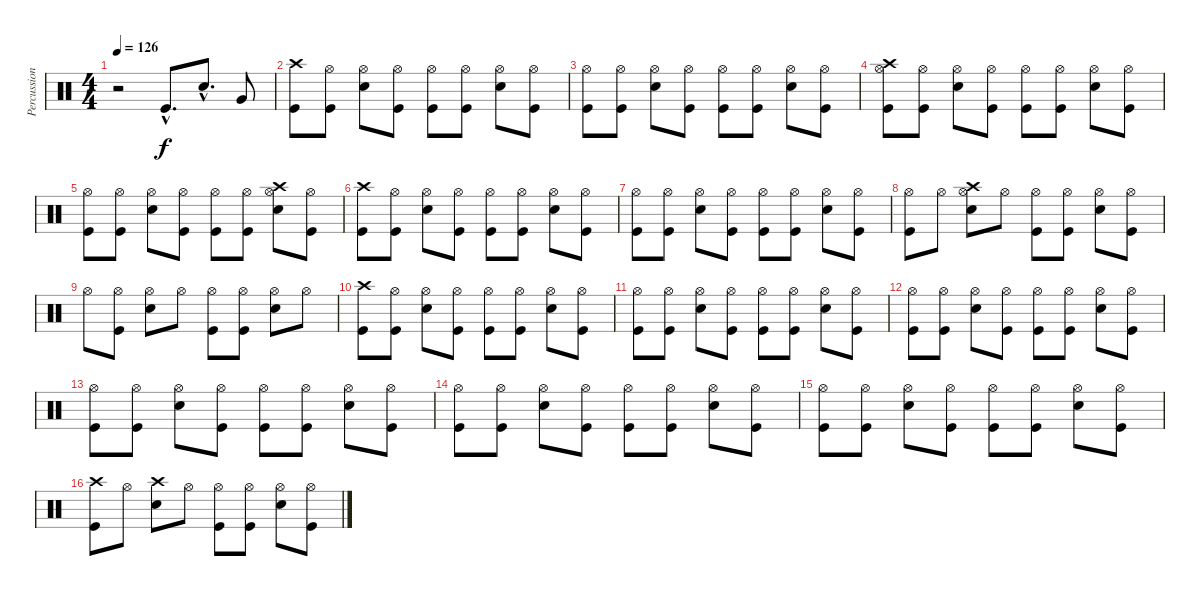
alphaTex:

\track ("Percussion" "Percussion") {instrument percussion}
\staff {score}
\articulation defaults
\ts (4 4)
\tempo 126
\clef neutral
\ks c
r.2{dy f} "Kick (hit)"{hac}.8{d} "Electric Snare (hit)"{hac}.8{d} "Very Low Tom (hit)".8 |
("Crash high (hit)" "Kick (hit)").8 ("Kick (hit)" "Hi-Hat (open)").8 ("Electric Snare (hit)" "Hi-Hat (open)").8 ("Kick (hit)" "Hi-Hat (open)").8 ("Kick (hit)" "Hi-Hat (open)").8 ("Kick (hit)" "Hi-Hat (open)").8 ("Electric Snare (hit)" "Hi-Hat (open)").8 ("Kick (hit)" "Hi-Hat (open)").8 |
("Kick (hit)" "Hi-Hat (open)").8 ("Kick (hit)" "Hi-Hat (open)").8 ("Electric Snare (hit)" "Hi-Hat (open)").8 ("Kick (hit)" "Hi-Hat (open)").8 ("Kick (hit)" "Hi-Hat (open)").8 ("Kick (hit)" "Hi-Hat (open)").8 ("Electric Snare (hit)" "Hi-Hat (open)").8 ("Kick (hit)" "Hi-Hat (open)").8 |
("Crash high (hit)" "Kick (hit)" "Hi-Hat (open)").8 ("Kick (hit)" "Hi-Hat (open)").8 ("Electric Snare (hit)" "Hi-Hat (open)").8 ("Kick (hit)" "Hi-Hat (open)").8 ("Kick (hit)" "Hi-Hat (open)").8 ("Kick (hit)" "Hi-Hat (open)").8 ("Electric Snare (hit)" "Hi-Hat (open)").8 ("Kick (hit)" "Hi-Hat (open)").8 |
("Kick (hit)" "Hi-Hat (open)").8 ("Kick (hit)" "Hi-Hat (open)").8 ("Electric Snare (hit)" "Hi-Hat (open)").8 ("Kick (hit)" "Hi-Hat (open)").8 ("Kick (hit)" "Hi-Hat (open)").8 ("Kick (hit)" "Hi-Hat (open)").8 ("Crash high (hit)" "Electric Snare (hit)" "Hi-Hat (open)").8 ("Kick (hit)" "Hi-Hat (open)").8 |
("Crash high (hit)" "Kick (hit)").8 ("Kick (hit)" "Hi-Hat (open)").8 ("Electric Snare (hit)" "Hi-Hat (open)").8 ("Kick (hit)" "Hi-Hat (open)").8 ("Kick (hit)" "Hi-Hat (open)").8 ("Kick (hit)" "Hi-Hat (open)").8 ("Electric Snare (hit)" "Hi-Hat (open)").8 ("Kick (hit)" "Hi-Hat (open)").8 |
("Kick (hit)" "Hi-Hat (open)").8 ("Kick (hit)" "Hi-Hat (open)").8 ("Electric Snare (hit)" "Hi-Hat (open)").8 ("Kick (hit)" "Hi-Hat (open)").8 ("Kick (hit)" "Hi-Hat (open)").8 ("Kick (hit)" "Hi-Hat (open)").8 ("Electric Snare (hit)" "Hi-Hat (open)").8 ("Hi-Hat (open)" "Kick (hit)").8 |
("Hi-Hat (open)" "Kick (hit)").8 "Hi-Hat (open)".8 ("Hi-Hat (open)" "Crash high (hit)" "Electric Snare (hit)").8 "Hi-Hat (open)".8 ("Hi-Hat (open)" "Kick (hit)").8 ("Hi-Hat (open)" "Kick (hit)").8 ("Hi-Hat (open)" "Electric Snare (hit)").8 ("Hi-Hat (open)" "Kick (hit)").8 |
"Hi-Hat (open)".8 ("Hi-Hat (open)" "Kick (hit)").8 ("Hi-Hat (open)" "Electric Snare (hit)").8 "Hi-Hat (open)".8 ("Hi-Hat (open)" "Kick (hit)").8 ("Hi-Hat (open)" "Kick (hit)").8 ("Hi-Hat (open)" "Electric Snare (hit)").8 "Hi-Hat (open)".8 |
("Kick (hit)" "Crash high (hit)").8 ("Kick (hit)" "Hi-Hat (open)").8 ("Electric Snare (hit)" "Hi-Hat (open)").8 ("Kick (hit)" "Hi-Hat (open)").8 ("Kick (hit)" "Hi-Hat (open)").8 ("Kick (hit)" "Hi-Hat (open)").8 ("Electric Snare (hit)" "Hi-Hat (open)").8 ("Kick (hit)" "Hi-Hat (open)").8 |
("Kick (hit)" "Hi-Hat (open)").8 ("Kick (hit)" "Hi-Hat (open)").8 ("Electric Snare (hit)" "Hi-Hat (open)").8 ("Kick (hit)" "Hi-Hat (open)").8 ("Kick (hit)" "Hi-Hat (open)").8 ("Kick (hit)" "Hi-Hat (open)").8 ("Electric Snare (hit)" "Hi-Hat (open)").8 ("Kick (hit)" "Hi-Hat (open)").8 |
("Kick (hit)" "Hi-Hat (open)").8 ("Kick (hit)" "Hi-Hat (open)").8 ("Electric Snare (hit)" "Hi-Hat (open)").8 ("Kick (hit)" "Hi-Hat (open)").8 ("Kick (hit)" "Hi-Hat (open)").8 ("Kick (hit)" "Hi-Hat (open)").8 ("Electric Snare (hit)" "Hi-Hat (open)").8 ("Kick (hit)" "Hi-Hat (open)").8 |
("Kick (hit)" "Hi-Hat (open)").8 ("Kick (hit)" "Hi-Hat (open)").8 ("Electric Snare (hit)" "Hi-Hat (open)").8 ("Kick (hit)" "Hi-Hat (open)").8 ("Kick (hit)" "Hi-Hat (open)").8 ("Kick (hit)" "Hi-Hat (open)").8 ("Electric Snare (hit)" "Hi-Hat (open)").8 ("Kick (hit)" "Hi-Hat (open)").8 |
("Kick (hit)" "Hi-Hat (open)").8 ("Kick (hit)" "Hi-Hat (open)").8 ("Electric Snare (hit)" "Hi-Hat (open)").8 ("Kick (hit)" "Hi-Hat (open)").8 ("Kick (hit)" "Hi-Hat (open)").8 ("Kick (hit)" "Hi-Hat (open)").8 ("Electric Snare (hit)" "Hi-Hat (open)").8 ("Kick (hit)" "Hi-Hat (open)").8 |
("Kick (hit)" "Hi-Hat (open)").8 ("Kick (hit)" "Hi-Hat (open)").8 ("Electric Snare (hit)" "Hi-Hat (open)").8 ("Kick (hit)" "Hi-Hat (open)").8 ("Kick (hit)" "Hi-Hat (open)").8 ("Kick (hit)" "Hi-Hat (open)").8 ("Electric Snare (hit)" "Hi-Hat (open)").8 ("Kick (hit)" "Hi-Hat (open)").8 |
("Crash high (hit)" "Kick (hit)").8 "Hi-Hat (open)".8 ("Crash high (hit)" "Electric Snare (hit)").8 "Hi-Hat (open)".8 ("Hi-Hat (open)" "Kick (hit)").8 ("Hi-Hat (open)" "Kick (hit)").8 ("Hi-Hat (open)" "Electric Snare (hit)").8 ("Kick (hit)" "Hi-Hat (open)").8
